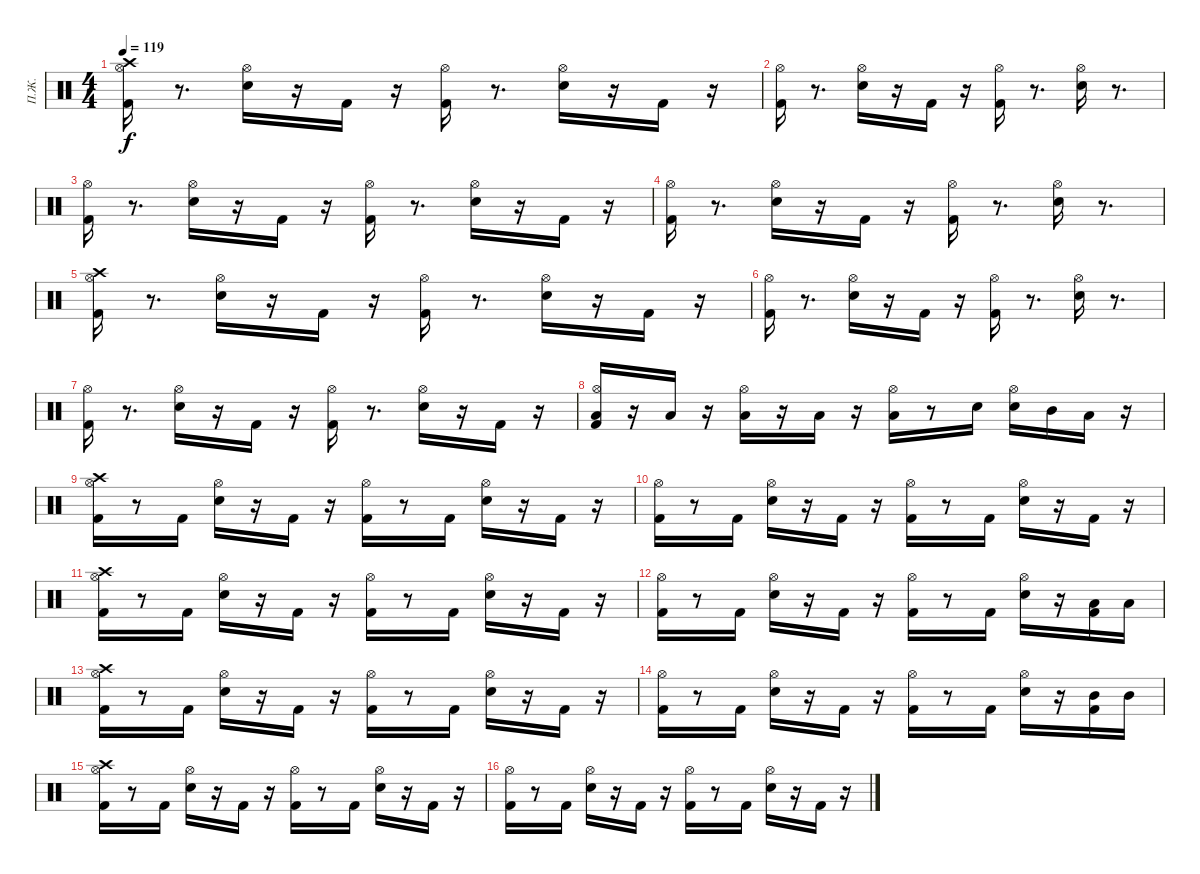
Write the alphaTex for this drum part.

\track ("П.Ж." "П.Ж.") {instrument percussion}
\staff {score}
\articulation defaults
\ts (4 4)
\tempo 119
\clef neutral
\ks c
("Kick (hit) 2" "Hi-Hat (open)" "Crash high (hit)").16{dy f} r.8{d} ("Electric Snare (hit)" "Hi-Hat (open)").16 r.16 "Kick (hit) 2".16 r.16 ("Kick (hit) 2" "Hi-Hat (open)").16 r.8{d} ("Electric Snare (hit)" "Hi-Hat (open)").16 r.16 "Kick (hit) 2".16 r.16 |
("Kick (hit) 2" "Hi-Hat (open)").16 r.8{d} ("Electric Snare (hit)" "Hi-Hat (open)").16 r.16 "Kick (hit) 2".16 r.16 ("Kick (hit) 2" "Hi-Hat (open)").16 r.8{d} ("Electric Snare (hit)" "Hi-Hat (open)").16 r.8{d} |
("Kick (hit) 2" "Hi-Hat (open)").16 r.8{d} ("Electric Snare (hit)" "Hi-Hat (open)").16 r.16 "Kick (hit) 2".16 r.16 ("Kick (hit) 2" "Hi-Hat (open)").16 r.8{d} ("Electric Snare (hit)" "Hi-Hat (open)").16 r.16 "Kick (hit) 2".16 r.16 |
("Kick (hit) 2" "Hi-Hat (open)").16 r.8{d} ("Electric Snare (hit)" "Hi-Hat (open)").16 r.16 "Kick (hit) 2".16 r.16 ("Kick (hit) 2" "Hi-Hat (open)").16 r.8{d} ("Electric Snare (hit)" "Hi-Hat (open)").16 r.8{d} |
("Kick (hit) 2" "Hi-Hat (open)" "Crash high (hit)").16 r.8{d} ("Electric Snare (hit)" "Hi-Hat (open)").16 r.16 "Kick (hit) 2".16 r.16 ("Kick (hit) 2" "Hi-Hat (open)").16 r.8{d} ("Electric Snare (hit)" "Hi-Hat (open)").16 r.16 "Kick (hit) 2".16 r.16 |
("Kick (hit) 2" "Hi-Hat (open)").16 r.8{d} ("Electric Snare (hit)" "Hi-Hat (open)").16 r.16 "Kick (hit) 2".16 r.16 ("Kick (hit) 2" "Hi-Hat (open)").16 r.8{d} ("Electric Snare (hit)" "Hi-Hat (open)").16 r.8{d} |
("Kick (hit) 2" "Hi-Hat (open)").16 r.8{d} ("Electric Snare (hit)" "Hi-Hat (open)").16 r.16 "Kick (hit) 2".16 r.16 ("Kick (hit) 2" "Hi-Hat (open)").16 r.8{d} ("Electric Snare (hit)" "Hi-Hat (open)").16 r.16 "Kick (hit) 2".16 r.16 |
("Low Tom (hit)" "Hi-Hat (open)" "Kick (hit) 2").16 r.16 "Low Tom (hit)".16 r.16 ("Low Tom (hit)" "Hi-Hat (open)").16 r.16 "Low Tom (hit)".16 r.16 ("Low Tom (hit)" "Hi-Hat (open)").16 r.8 "Electric Snare (hit)".16 ("Electric Snare (hit)" "Hi-Hat (open)").16 "Mid Tom (hit)".16 "Low Tom (hit)".16 r.16 |
("Kick (hit) 2" "Crash high (hit)" "Hi-Hat (open)").16 r.8 "Kick (hit) 2".16 ("Hi-Hat (open)" "Electric Snare (hit)").16 r.16 "Kick (hit) 2".16 r.16 ("Hi-Hat (open)" "Kick (hit) 2").16 r.8 "Kick (hit) 2".16 ("Electric Snare (hit)" "Hi-Hat (open)").16 r.16 "Kick (hit) 2".16 r.16 |
("Hi-Hat (open)" "Kick (hit) 2").16 r.8 "Kick (hit) 2".16 ("Electric Snare (hit)" "Hi-Hat (open)").16 r.16 "Kick (hit) 2".16 r.16 ("Hi-Hat (open)" "Kick (hit) 2").16 r.8 "Kick (hit) 2".16 ("Electric Snare (hit)" "Hi-Hat (open)").16 r.16 "Kick (hit) 2".16 r.16 |
("Hi-Hat (open)" "Crash high (hit)" "Kick (hit) 2").16 r.8 "Kick (hit) 2".16 ("Electric Snare (hit)" "Hi-Hat (open)").16 r.16 "Kick (hit) 2".16 r.16 ("Kick (hit) 2" "Hi-Hat (open)").16 r.8 "Kick (hit) 2".16 ("Electric Snare (hit)" "Hi-Hat (open)").16 r.16 "Kick (hit) 2".16 r.16 |
("Kick (hit) 2" "Hi-Hat (open)").16 r.8 "Kick (hit) 2".16 ("Electric Snare (hit)" "Hi-Hat (open)").16 r.16 "Kick (hit) 2".16 r.16 ("Hi-Hat (open)" "Kick (hit) 2").16 r.8 "Kick (hit) 2".16 ("Hi-Hat (open)" "Electric Snare (hit)").16 r.16 ("Low Tom (hit)" "Kick (hit) 2").16 "Low Tom (hit)".16 |
("Kick (hit) 2" "Crash high (hit)" "Hi-Hat (open)").16 r.8 "Kick (hit) 2".16 ("Electric Snare (hit)" "Hi-Hat (open)").16 r.16 "Kick (hit) 2".16 r.16 ("Hi-Hat (open)" "Kick (hit) 2").16 r.8 "Kick (hit) 2".16 ("Electric Snare (hit)" "Hi-Hat (open)").16 r.16 "Kick (hit) 2".16 r.16 |
("Hi-Hat (open)" "Kick (hit) 2").16 r.8 "Kick (hit) 2".16 ("Hi-Hat (open)" "Electric Snare (hit)").16 r.16 "Kick (hit) 2".16 r.16 ("Hi-Hat (open)" "Kick (hit) 2").16 r.8 "Kick (hit) 2".16 ("Hi-Hat (open)" "Electric Snare (hit)").16 r.16 ("Kick (hit) 2" "Mid Tom (hit)").16 "Mid Tom (hit)".16 |
("Hi-Hat (open)" "Crash high (hit)" "Kick (hit) 2").16 r.8 "Kick (hit) 2".16 ("Electric Snare (hit)" "Hi-Hat (open)").16 r.16 "Kick (hit) 2".16 r.16 ("Hi-Hat (open)" "Kick (hit) 2").16 r.8 "Kick (hit) 2".16 ("Electric Snare (hit)" "Hi-Hat (open)").16 r.16 "Kick (hit) 2".16 r.16 |
("Hi-Hat (open)" "Kick (hit) 2").16 r.8 "Kick (hit) 2".16 ("Electric Snare (hit)" "Hi-Hat (open)").16 r.16 "Kick (hit) 2".16 r.16 ("Hi-Hat (open)" "Kick (hit) 2").16 r.8 "Kick (hit) 2".16 ("Electric Snare (hit)" "Hi-Hat (open)").16 r.16 "Kick (hit) 2".16 r.16
